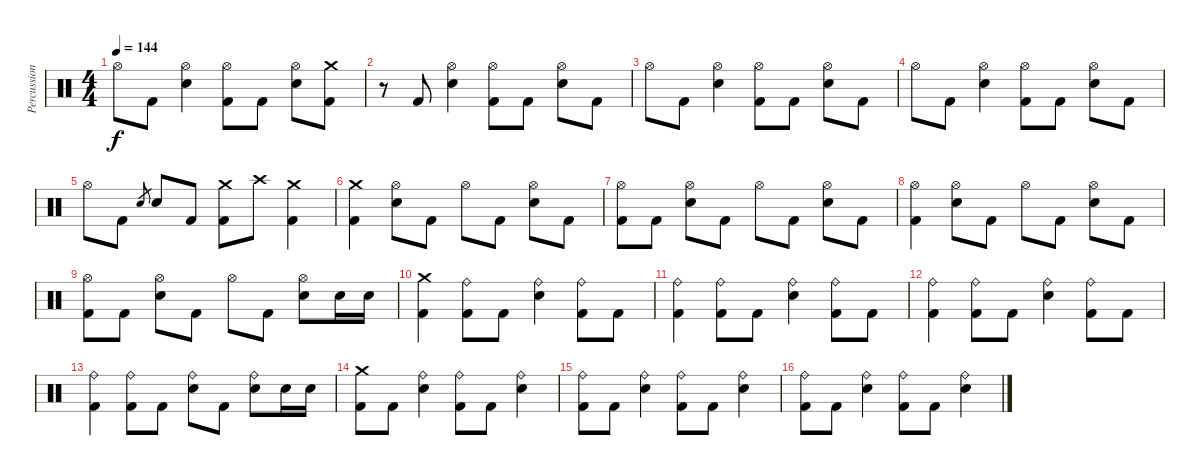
\track ("Percussions" "Percussion") {instrument percussion}
\staff {score}
\articulation defaults
\ts (4 4)
\tempo 144
\clef neutral
\ks c "Hi-Hat (open)".8{dy f} "Kick (hit) 2".8
("Hi-Hat (open)" "Electric Snare (hit)").4 ("Hi-Hat (open)" "Kick (hit) 2").8 "Kick (hit) 2".8 ("Hi-Hat (open)" "Electric Snare (hit)").8 ("Crash medium (hit)" "Kick (hit) 2").8 |
r.8 "Kick (hit) 2".8 ("Hi-Hat (open)" "Electric Snare (hit)").4 ("Hi-Hat (open)" "Kick (hit) 2").8 "Kick (hit) 2".8 ("Hi-Hat (open)" "Electric Snare (hit)").8 "Kick (hit) 2".8 |
"Hi-Hat (open)".8 "Kick (hit) 2".8 ("Hi-Hat (open)" "Electric Snare (hit)").4 ("Hi-Hat (open)" "Kick (hit) 2").8 "Kick (hit) 2".8 ("Hi-Hat (open)" "Electric Snare (hit)").8 "Kick (hit) 2".8 |
"Hi-Hat (open)".8 "Kick (hit) 2".8 ("Hi-Hat (open)" "Electric Snare (hit)").4 ("Hi-Hat (open)" "Kick (hit) 2").8 "Kick (hit) 2".8 ("Hi-Hat (open)" "Electric Snare (hit)").8 "Kick (hit) 2".8 |
"Hi-Hat (open)".8 "Kick (hit) 2".8 "Electric Snare (hit)".8{gr} "Electric Snare (hit)".8 "Kick (hit) 2".8 ("Crash medium (hit)" "Kick (hit) 2").8 "Crash high (hit)".8 ("Crash medium (hit)" "Kick (hit) 2").4 |
("Crash medium (hit)" "Kick (hit) 2").4 ("Hi-Hat (open)" "Electric Snare (hit)").8 "Kick (hit) 2".8 "Hi-Hat (open)".8 "Kick (hit) 2".8 ("Hi-Hat (open)" "Electric Snare (hit)").8 "Kick (hit) 2".8 |
("Hi-Hat (open)" "Kick (hit) 2").8 "Kick (hit) 2".8 ("Hi-Hat (open)" "Electric Snare (hit)").8 "Kick (hit) 2".8 "Hi-Hat (open)".8 "Kick (hit) 2".8 ("Hi-Hat (open)" "Electric Snare (hit)").8 "Kick (hit) 2".8 |
("Hi-Hat (open)" "Kick (hit) 2").4 ("Hi-Hat (open)" "Electric Snare (hit)").8 "Kick (hit) 2".8 "Hi-Hat (open)".8 "Kick (hit) 2".8 ("Hi-Hat (open)" "Electric Snare (hit)").8 "Kick (hit) 2".8 |
("Hi-Hat (open)" "Kick (hit) 2").8 "Kick (hit) 2".8 ("Hi-Hat (open)" "Electric Snare (hit)").8 "Kick (hit) 2".8 "Hi-Hat (open)".8 "Kick (hit) 2".8 ("Hi-Hat (open)" "Electric Snare (hit)").8 "Electric Snare (hit)".16 "Electric Snare (hit)".16 |
("Crash medium (hit)" "Kick (hit) 2").4 ("Ride (bell)" "Kick (hit) 2").8 "Kick (hit) 2".8 ("Ride (bell)" "Electric Snare (hit)").4 ("Ride (bell)" "Kick (hit) 2").8 "Kick (hit) 2".8 |
("Ride (bell)" "Kick (hit) 2").4 ("Ride (bell)" "Kick (hit) 2").8 "Kick (hit) 2".8 ("Ride (bell)" "Electric Snare (hit)").4 ("Ride (bell)" "Kick (hit) 2").8 "Kick (hit) 2".8 |
("Ride (bell)" "Kick (hit) 2").4 ("Ride (bell)" "Kick (hit) 2").8 "Kick (hit) 2".8 ("Ride (bell)" "Electric Snare (hit)").4 ("Ride (bell)" "Kick (hit) 2").8 "Kick (hit) 2".8 |
("Ride (bell)" "Kick (hit) 2").4 ("Ride (bell)" "Kick (hit) 2").8 "Kick (hit) 2".8 ("Ride (bell)" "Electric Snare (hit)").8 "Kick (hit) 2".8 ("Ride (bell)" "Electric Snare (hit)").8 "Electric Snare (hit)".16 "Electric Snare (hit)".16 |
("Crash medium (hit)" "Kick (hit) 2").8 "Kick (hit) 2".8 ("Ride (bell)" "Electric Snare (hit)").4 ("Ride (bell)" "Kick (hit) 2").8 "Kick (hit) 2".8 ("Ride (bell)" "Electric Snare (hit)").4 |
("Ride (bell)" "Kick (hit) 2").8 "Kick (hit) 2".8 ("Ride (bell)" "Electric Snare (hit)").4 ("Ride (bell)" "Kick (hit) 2").8 "Kick (hit) 2".8 ("Ride (bell)" "Electric Snare (hit)").4 |
("Ride (bell)" "Kick (hit) 2").8 "Kick (hit) 2".8 ("Ride (bell)" "Electric Snare (hit)").4 ("Ride (bell)" "Kick (hit) 2").8 "Kick (hit) 2".8 ("Ride (bell)" "Electric Snare (hit)").4
